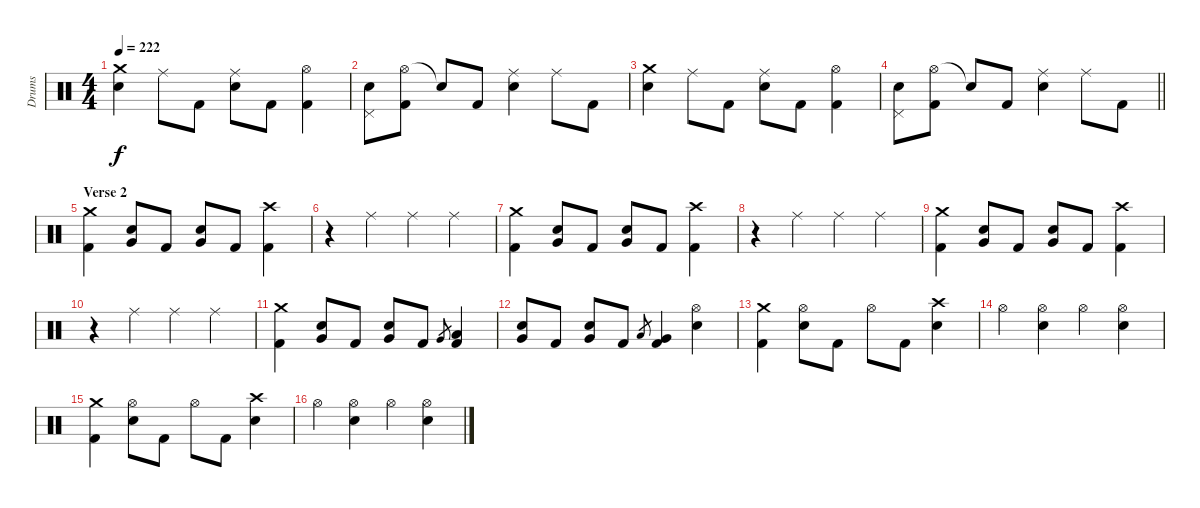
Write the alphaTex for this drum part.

\track ("Drums" "Drums") {instrument percussion}
\staff {score}
\articulation defaults
\ts (4 4)
\tempo 222
\clef neutral
\ks c
("Crash medium (hit)" "Electric Snare (hit)").4{dy f} "Ride (middle)".8 "Kick (hit) 2".8 ("Ride (middle)" "Electric Snare (hit)").8 "Kick (hit) 2".8 ("Hi-Hat (open)" "Kick (hit) 2").4 |
("Pedal Hi-Hat (hit)" "Electric Snare (hit)").8 ("Hi-Hat (open)" "Kick (hit) 2").8 "Snare (hit)"{t}.8 "Kick (hit) 2".8 ("Ride (middle)" "Electric Snare (hit)").4 "Ride (middle)".8 "Kick (hit) 2".8 |
("Crash medium (hit)" "Electric Snare (hit)").4 "Ride (middle)".8 "Kick (hit) 2".8 ("Ride (middle)" "Electric Snare (hit)").8 "Kick (hit) 2".8 ("Hi-Hat (open)" "Kick (hit) 2").4 |
\barLineRight lightlight
("Pedal Hi-Hat (hit)" "Electric Snare (hit)").8 ("Hi-Hat (open)" "Kick (hit) 2").8 "Snare (hit)"{t}.8 "Kick (hit) 2".8 ("Ride (middle)" "Electric Snare (hit)").4 "Ride (middle)".8 "Kick (hit) 2".8 |
\section ("" "Verse 2")
("Crash medium (hit)" "Kick (hit) 2").4 ("Electric Snare (hit)" "Very Low Tom (hit)").8 "Kick (hit) 2".8 ("Electric Snare (hit)" "Very Low Tom (hit)").8 "Kick (hit) 2".8 ("Crash high (hit)" "Kick (hit) 2").4 |
r.4 "Ride (middle)".4 "Ride (middle)".4 "Ride (middle)".4 |
("Crash medium (hit)" "Kick (hit) 2").4 ("Electric Snare (hit)" "Very Low Tom (hit)").8 "Kick (hit) 2".8 ("Electric Snare (hit)" "Very Low Tom (hit)").8 "Kick (hit) 2".8 ("Crash high (hit)" "Kick (hit) 2").4 |
r.4 "Ride (middle)".4 "Ride (middle)".4 "Ride (middle)".4 |
("Crash medium (hit)" "Kick (hit) 2").4 ("Electric Snare (hit)" "Very Low Tom (hit)").8 "Kick (hit) 2".8 ("Electric Snare (hit)" "Very Low Tom (hit)").8 "Kick (hit) 2".8 ("Crash high (hit)" "Kick (hit) 2").4 |
r.4 "Ride (middle)".4 "Ride (middle)".4 "Ride (middle)".4 |
("Crash medium (hit)" "Kick (hit) 2").4 ("Electric Snare (hit)" "Very Low Tom (hit)").8 "Kick (hit) 2".8 ("Electric Snare (hit)" "Very Low Tom (hit)").8 "Kick (hit) 2".8 "Very Low Tom (hit)".8{gr} ("Low Tom (hit)" "Kick (hit) 2").4 |
("Electric Snare (hit)" "Very Low Tom (hit)").8 "Kick (hit) 2".8 ("Electric Snare (hit)" "Very Low Tom (hit)").8 "Kick (hit) 2".8 "Low Floor Tom (hit)".8{gr} ("Very Low Tom (hit)" "Kick (hit) 2").4 ("Hi-Hat (open)" "Electric Snare (hit)").4 |
("Crash medium (hit)" "Kick (hit) 2").4 ("Hi-Hat (open)" "Electric Snare (hit)").8 "Kick (hit) 2".8 "Hi-Hat (open)".8 "Kick (hit) 2".8 ("Crash high (hit)" "Electric Snare (hit)").4 |
"Hi-Hat (open)".4 ("Hi-Hat (open)" "Electric Snare (hit)").4 "Hi-Hat (open)".4 ("Hi-Hat (open)" "Electric Snare (hit)").4 |
("Crash medium (hit)" "Kick (hit) 2").4 ("Hi-Hat (open)" "Electric Snare (hit)").8 "Kick (hit) 2".8 "Hi-Hat (open)".8 "Kick (hit) 2".8 ("Crash high (hit)" "Electric Snare (hit)").4 |
"Hi-Hat (open)".4 ("Hi-Hat (open)" "Electric Snare (hit)").4 "Hi-Hat (open)".4 ("Hi-Hat (open)" "Electric Snare (hit)").4
